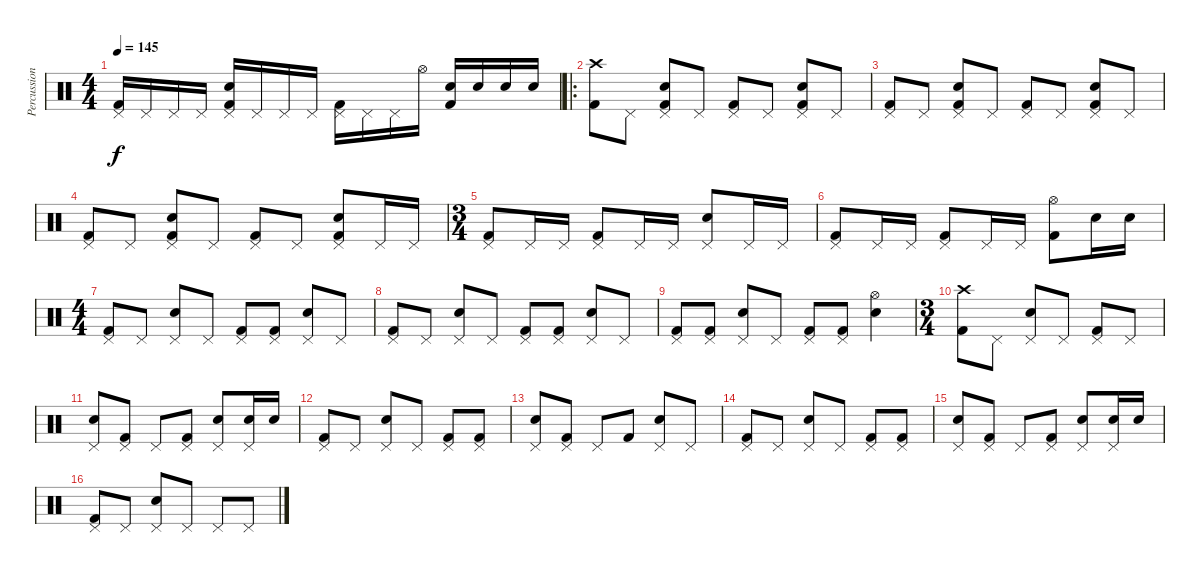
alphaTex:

\track ("Percussion" "Percussion") {instrument percussion}
\staff {score}
\articulation defaults
\ts (4 4)
\tempo 145
\clef neutral
\ks c
("Pedal Hi-Hat (hit)" "Kick (hit) 2").16{dy f} "Pedal Hi-Hat (hit)".16 "Pedal Hi-Hat (hit)".16 "Pedal Hi-Hat (hit)".16 ("Pedal Hi-Hat (hit)" "Kick (hit) 2" "Electric Snare (hit)").16 "Pedal Hi-Hat (hit)".16 "Pedal Hi-Hat (hit)".16 "Pedal Hi-Hat (hit)".16 ("Pedal Hi-Hat (hit)" "Kick (hit) 2").16 "Pedal Hi-Hat (hit)".16 "Pedal Hi-Hat (hit)".16 "Hi-Hat (open)".16 ("Kick (hit) 2" "Electric Snare (hit)").16 "Electric Snare (hit)".16 "Electric Snare (hit)".16 "Electric Snare (hit)".16 |
\ro
("Crash high (hit)" "Kick (hit) 2").8 "Pedal Hi-Hat (hit)".8 ("Pedal Hi-Hat (hit)" "Kick (hit) 2" "Electric Snare (hit)").8 "Pedal Hi-Hat (hit)".8 ("Pedal Hi-Hat (hit)" "Kick (hit) 2").8 "Pedal Hi-Hat (hit)".8 ("Pedal Hi-Hat (hit)" "Kick (hit) 2" "Electric Snare (hit)").8 "Pedal Hi-Hat (hit)".8 |
("Pedal Hi-Hat (hit)" "Kick (hit) 2").8 "Pedal Hi-Hat (hit)".8 ("Pedal Hi-Hat (hit)" "Kick (hit) 2" "Electric Snare (hit)").8 "Pedal Hi-Hat (hit)".8 ("Pedal Hi-Hat (hit)" "Kick (hit) 2").8 "Pedal Hi-Hat (hit)".8 ("Pedal Hi-Hat (hit)" "Kick (hit) 2" "Electric Snare (hit)").8 "Pedal Hi-Hat (hit)".8 |
("Pedal Hi-Hat (hit)" "Kick (hit) 2").8 "Pedal Hi-Hat (hit)".8 ("Pedal Hi-Hat (hit)" "Kick (hit) 2" "Electric Snare (hit)").8 "Pedal Hi-Hat (hit)".8 ("Pedal Hi-Hat (hit)" "Kick (hit) 2").8 "Pedal Hi-Hat (hit)".8 ("Pedal Hi-Hat (hit)" "Kick (hit) 2" "Electric Snare (hit)").8 "Pedal Hi-Hat (hit)".16 "Pedal Hi-Hat (hit)".16 |
\ts (3 4)
("Pedal Hi-Hat (hit)" "Kick (hit) 2").8 "Pedal Hi-Hat (hit)".16 "Pedal Hi-Hat (hit)".16 ("Pedal Hi-Hat (hit)" "Kick (hit) 2").8 "Pedal Hi-Hat (hit)".16 "Pedal Hi-Hat (hit)".16 ("Pedal Hi-Hat (hit)" "Electric Snare (hit)").8 "Pedal Hi-Hat (hit)".16 "Pedal Hi-Hat (hit)".16 |
("Pedal Hi-Hat (hit)" "Kick (hit) 2").8 "Pedal Hi-Hat (hit)".16 "Pedal Hi-Hat (hit)".16 ("Pedal Hi-Hat (hit)" "Kick (hit) 2").8 "Pedal Hi-Hat (hit)".16 "Pedal Hi-Hat (hit)".16 ("Hi-Hat (open)" "Kick (hit) 2").8 "Electric Snare (hit)".16 "Electric Snare (hit)".16 |
\ts (4 4)
("Kick (hit) 2" "Pedal Hi-Hat (hit)").8 "Pedal Hi-Hat (hit)".8 ("Electric Snare (hit)" "Pedal Hi-Hat (hit)").8 "Pedal Hi-Hat (hit)".8 ("Pedal Hi-Hat (hit)" "Kick (hit) 2").8 ("Kick (hit) 2" "Pedal Hi-Hat (hit)").8 ("Pedal Hi-Hat (hit)" "Electric Snare (hit)").8 "Pedal Hi-Hat (hit)".8 |
("Kick (hit) 2" "Pedal Hi-Hat (hit)").8 "Pedal Hi-Hat (hit)".8 ("Electric Snare (hit)" "Pedal Hi-Hat (hit)").8 "Pedal Hi-Hat (hit)".8 ("Pedal Hi-Hat (hit)" "Kick (hit) 2").8 ("Kick (hit) 2" "Pedal Hi-Hat (hit)").8 ("Pedal Hi-Hat (hit)" "Electric Snare (hit)").8 "Pedal Hi-Hat (hit)".8 |
("Pedal Hi-Hat (hit)" "Kick (hit) 2").8 ("Kick (hit) 2" "Pedal Hi-Hat (hit)").8 ("Pedal Hi-Hat (hit)" "Electric Snare (hit)").8 "Pedal Hi-Hat (hit)".8 ("Pedal Hi-Hat (hit)" "Kick (hit) 2").8 ("Kick (hit) 2" "Pedal Hi-Hat (hit)").8 ("Hi-Hat (open)" "Electric Snare (hit)").4 |
\ts (3 4)
("Crash high (hit)" "Kick (hit) 2").8 "Pedal Hi-Hat (hit)".8 ("Pedal Hi-Hat (hit)" "Electric Snare (hit)").8 "Pedal Hi-Hat (hit)".8 ("Pedal Hi-Hat (hit)" "Kick (hit) 2").8 "Pedal Hi-Hat (hit)".8 |
("Pedal Hi-Hat (hit)" "Electric Snare (hit)").8 ("Pedal Hi-Hat (hit)" "Kick (hit) 2").8 "Pedal Hi-Hat (hit)".8 ("Pedal Hi-Hat (hit)" "Kick (hit) 2").8 ("Electric Snare (hit)" "Pedal Hi-Hat (hit)").8 ("Pedal Hi-Hat (hit)" "Electric Snare (hit)").16 "Electric Snare (hit)".16 |
("Pedal Hi-Hat (hit)" "Kick (hit) 2").8 "Pedal Hi-Hat (hit)".8 ("Pedal Hi-Hat (hit)" "Electric Snare (hit)").8 "Pedal Hi-Hat (hit)".8 ("Pedal Hi-Hat (hit)" "Kick (hit) 2").8 ("Pedal Hi-Hat (hit)" "Kick (hit) 2").8 |
("Pedal Hi-Hat (hit)" "Electric Snare (hit)").8 ("Pedal Hi-Hat (hit)" "Kick (hit) 2").8 "Pedal Hi-Hat (hit)".8 "Kick (hit) 2".8 ("Pedal Hi-Hat (hit)" "Electric Snare (hit)").8 "Pedal Hi-Hat (hit)".8 |
("Pedal Hi-Hat (hit)" "Kick (hit) 2").8 "Pedal Hi-Hat (hit)".8 ("Pedal Hi-Hat (hit)" "Electric Snare (hit)").8 "Pedal Hi-Hat (hit)".8 ("Pedal Hi-Hat (hit)" "Kick (hit) 2").8 ("Pedal Hi-Hat (hit)" "Kick (hit) 2").8 |
("Pedal Hi-Hat (hit)" "Electric Snare (hit)").8 ("Pedal Hi-Hat (hit)" "Kick (hit) 2").8 "Pedal Hi-Hat (hit)".8 ("Pedal Hi-Hat (hit)" "Kick (hit) 2").8 ("Electric Snare (hit)" "Pedal Hi-Hat (hit)").8 ("Pedal Hi-Hat (hit)" "Electric Snare (hit)").16 "Electric Snare (hit)".16 |
("Pedal Hi-Hat (hit)" "Kick (hit) 2").8 "Pedal Hi-Hat (hit)".8 ("Pedal Hi-Hat (hit)" "Electric Snare (hit)").8 "Pedal Hi-Hat (hit)".8 "Pedal Hi-Hat (hit)".8 "Pedal Hi-Hat (hit)".8
